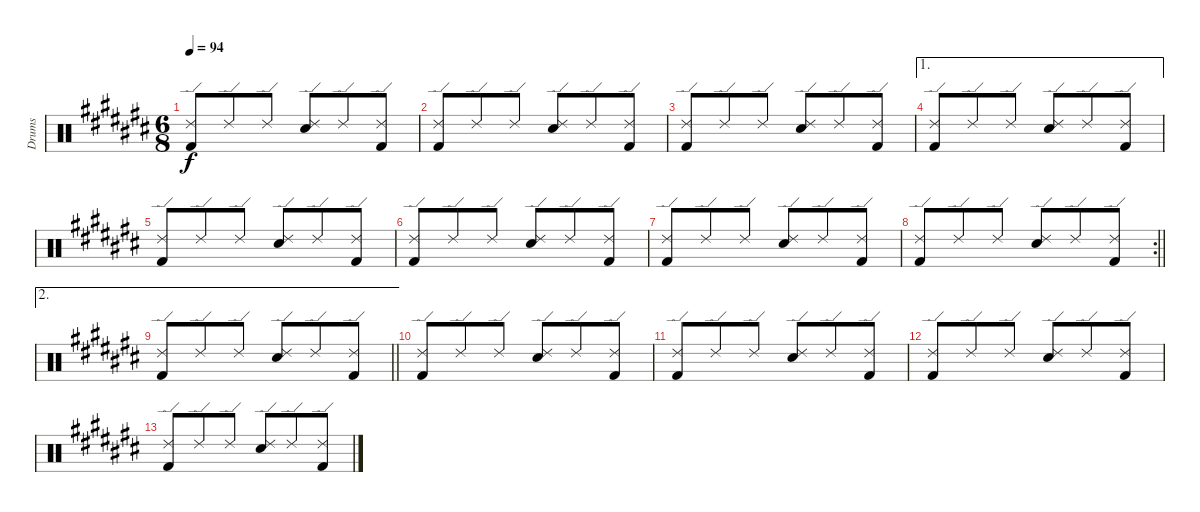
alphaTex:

\track ("Drums" "Drums") {instrument percussion}
\staff {score}
\articulation defaults
\ts (6 8)
\tempo 94
\clef neutral
\ks c#
("Ride (edge) 2" "Kick (hit) 2").8{dy f} "Ride (edge) 2".8 "Ride (edge) 2".8 ("Ride (edge) 2" "Snare (hit) 2").8 "Ride (edge) 2".8 ("Ride (edge) 2" "Kick (hit) 2").8 |
("Ride (edge) 2" "Kick (hit) 2").8 "Ride (edge) 2".8 "Ride (edge) 2".8 ("Ride (edge) 2" "Snare (hit) 2").8 "Ride (edge) 2".8 ("Ride (edge) 2" "Kick (hit) 2").8 |
("Ride (edge) 2" "Kick (hit) 2").8 "Ride (edge) 2".8 "Ride (edge) 2".8 ("Ride (edge) 2" "Snare (hit) 2").8 "Ride (edge) 2".8 ("Ride (edge) 2" "Kick (hit) 2").8 |
\ae 1
("Ride (edge) 2" "Kick (hit) 2").8 "Ride (edge) 2".8 "Ride (edge) 2".8 ("Ride (edge) 2" "Snare (hit) 2").8 "Ride (edge) 2".8 ("Ride (edge) 2" "Kick (hit) 2").8 |
("Ride (edge) 2" "Kick (hit) 2").8 "Ride (edge) 2".8 "Ride (edge) 2".8 ("Ride (edge) 2" "Snare (hit) 2").8 "Ride (edge) 2".8 ("Ride (edge) 2" "Kick (hit) 2").8 |
("Ride (edge) 2" "Kick (hit) 2").8 "Ride (edge) 2".8 "Ride (edge) 2".8 ("Ride (edge) 2" "Snare (hit) 2").8 "Ride (edge) 2".8 ("Ride (edge) 2" "Kick (hit) 2").8 |
("Ride (edge) 2" "Kick (hit) 2").8 "Ride (edge) 2".8 "Ride (edge) 2".8 ("Ride (edge) 2" "Snare (hit) 2").8 "Ride (edge) 2".8 ("Ride (edge) 2" "Kick (hit) 2").8 |
\rc 2
\barLineRight lightlight
("Ride (edge) 2" "Kick (hit) 2").8 "Ride (edge) 2".8 "Ride (edge) 2".8 ("Ride (edge) 2" "Snare (hit) 2").8 "Ride (edge) 2".8 ("Ride (edge) 2" "Kick (hit) 2").8 |
\ae 2
\barLineRight lightlight
("Ride (edge) 2" "Kick (hit) 2").8 "Ride (edge) 2".8 "Ride (edge) 2".8 ("Ride (edge) 2" "Snare (hit) 2").8 "Ride (edge) 2".8 ("Ride (edge) 2" "Kick (hit) 2").8 |
("Ride (edge) 2" "Kick (hit) 2").8 "Ride (edge) 2".8 "Ride (edge) 2".8 ("Ride (edge) 2" "Snare (hit) 2").8 "Ride (edge) 2".8 ("Ride (edge) 2" "Kick (hit) 2").8 |
("Ride (edge) 2" "Kick (hit) 2").8 "Ride (edge) 2".8 "Ride (edge) 2".8 ("Ride (edge) 2" "Snare (hit) 2").8 "Ride (edge) 2".8 ("Ride (edge) 2" "Kick (hit) 2").8 |
("Ride (edge) 2" "Kick (hit) 2").8 "Ride (edge) 2".8 "Ride (edge) 2".8 ("Ride (edge) 2" "Snare (hit) 2").8 "Ride (edge) 2".8 ("Ride (edge) 2" "Kick (hit) 2").8 |
("Ride (edge) 2" "Kick (hit) 2").8 "Ride (edge) 2".8 "Ride (edge) 2".8 ("Ride (edge) 2" "Snare (hit) 2").8 "Ride (edge) 2".8 ("Ride (edge) 2" "Kick (hit) 2").8
